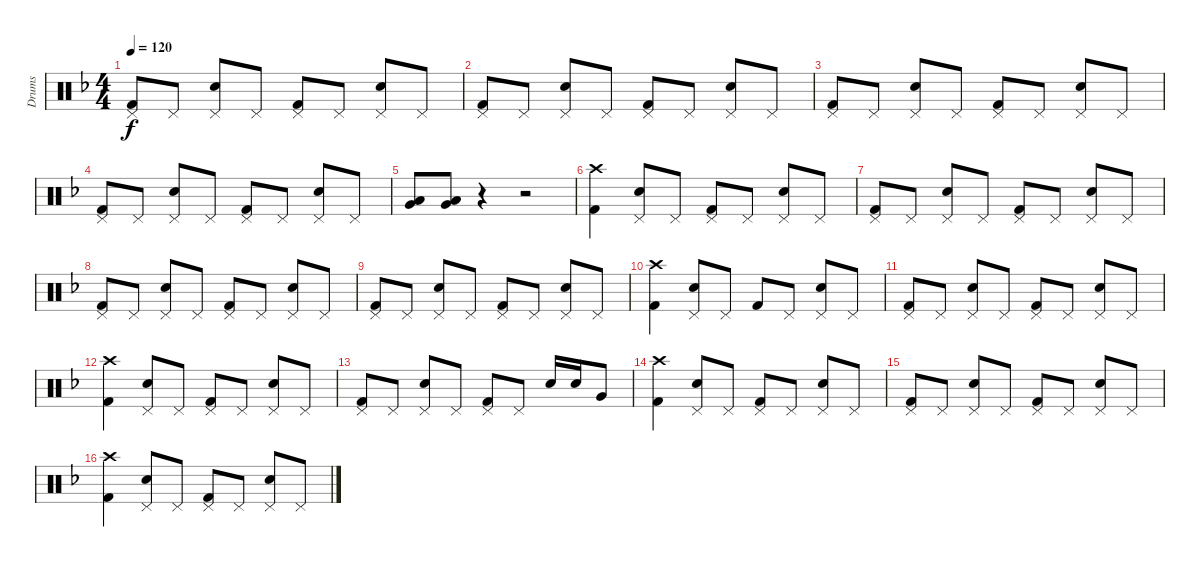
\track ("Drums" "Drums") {instrument percussion}
\staff {score}
\articulation defaults
\ts (4 4)
\tempo 120
\clef neutral
\ks f
("Pedal Hi-Hat (hit)" "Kick (hit) 2").8{dy f} "Pedal Hi-Hat (hit)".8 ("Pedal Hi-Hat (hit)" "Electric Snare (hit)").8 "Pedal Hi-Hat (hit)".8 ("Pedal Hi-Hat (hit)" "Kick (hit) 2").8 "Pedal Hi-Hat (hit)".8 ("Pedal Hi-Hat (hit)" "Electric Snare (hit)").8 "Pedal Hi-Hat (hit)".8 |
("Pedal Hi-Hat (hit)" "Kick (hit) 2").8 "Pedal Hi-Hat (hit)".8 ("Pedal Hi-Hat (hit)" "Electric Snare (hit)").8 "Pedal Hi-Hat (hit)".8 ("Pedal Hi-Hat (hit)" "Kick (hit) 2").8 "Pedal Hi-Hat (hit)".8 ("Pedal Hi-Hat (hit)" "Electric Snare (hit)").8 "Pedal Hi-Hat (hit)".8 |
("Pedal Hi-Hat (hit)" "Kick (hit) 2").8 "Pedal Hi-Hat (hit)".8 ("Pedal Hi-Hat (hit)" "Electric Snare (hit)").8 "Pedal Hi-Hat (hit)".8 ("Pedal Hi-Hat (hit)" "Kick (hit) 2").8 "Pedal Hi-Hat (hit)".8 ("Pedal Hi-Hat (hit)" "Electric Snare (hit)").8 "Pedal Hi-Hat (hit)".8 |
("Pedal Hi-Hat (hit)" "Kick (hit) 2").8 "Pedal Hi-Hat (hit)".8 ("Pedal Hi-Hat (hit)" "Electric Snare (hit)").8 "Pedal Hi-Hat (hit)".8 ("Pedal Hi-Hat (hit)" "Kick (hit) 2").8 "Pedal Hi-Hat (hit)".8 ("Pedal Hi-Hat (hit)" "Electric Snare (hit)").8 "Pedal Hi-Hat (hit)".8 |
("Very Low Tom (hit)" "Low Floor Tom (hit)").8 ("Very Low Tom (hit)" "Low Floor Tom (hit)").8 r.4 r.2 |
("Crash high (hit)" "Kick (hit) 2").4 ("Pedal Hi-Hat (hit)" "Electric Snare (hit)").8 "Pedal Hi-Hat (hit)".8 ("Pedal Hi-Hat (hit)" "Kick (hit) 2").8 "Pedal Hi-Hat (hit)".8 ("Pedal Hi-Hat (hit)" "Electric Snare (hit)").8 "Pedal Hi-Hat (hit)".8 |
("Pedal Hi-Hat (hit)" "Kick (hit) 2").8 "Pedal Hi-Hat (hit)".8 ("Pedal Hi-Hat (hit)" "Electric Snare (hit)").8 "Pedal Hi-Hat (hit)".8 ("Pedal Hi-Hat (hit)" "Kick (hit) 2").8 "Pedal Hi-Hat (hit)".8 ("Pedal Hi-Hat (hit)" "Electric Snare (hit)").8 "Pedal Hi-Hat (hit)".8 |
("Pedal Hi-Hat (hit)" "Kick (hit) 2").8 "Pedal Hi-Hat (hit)".8 ("Pedal Hi-Hat (hit)" "Electric Snare (hit)").8 "Pedal Hi-Hat (hit)".8 ("Pedal Hi-Hat (hit)" "Kick (hit) 2").8 "Pedal Hi-Hat (hit)".8 ("Pedal Hi-Hat (hit)" "Electric Snare (hit)").8 "Pedal Hi-Hat (hit)".8 |
("Pedal Hi-Hat (hit)" "Kick (hit) 2").8 "Pedal Hi-Hat (hit)".8 ("Pedal Hi-Hat (hit)" "Electric Snare (hit)").8 "Pedal Hi-Hat (hit)".8 ("Pedal Hi-Hat (hit)" "Kick (hit) 2").8 "Pedal Hi-Hat (hit)".8 ("Pedal Hi-Hat (hit)" "Electric Snare (hit)").8 "Pedal Hi-Hat (hit)".8 |
("Crash high (hit)" "Kick (hit) 2").4 ("Pedal Hi-Hat (hit)" "Electric Snare (hit)").8 "Pedal Hi-Hat (hit)".8 "Kick (hit) 2".8 "Pedal Hi-Hat (hit)".8 ("Pedal Hi-Hat (hit)" "Electric Snare (hit)").8 "Pedal Hi-Hat (hit)".8 |
("Pedal Hi-Hat (hit)" "Kick (hit) 2").8 "Pedal Hi-Hat (hit)".8 ("Pedal Hi-Hat (hit)" "Electric Snare (hit)").8 "Pedal Hi-Hat (hit)".8 ("Pedal Hi-Hat (hit)" "Kick (hit) 2").8 "Pedal Hi-Hat (hit)".8 ("Pedal Hi-Hat (hit)" "Electric Snare (hit)").8 "Pedal Hi-Hat (hit)".8 |
("Crash high (hit)" "Kick (hit) 2").4 ("Pedal Hi-Hat (hit)" "Electric Snare (hit)").8 "Pedal Hi-Hat (hit)".8 ("Pedal Hi-Hat (hit)" "Kick (hit) 2").8 "Pedal Hi-Hat (hit)".8 ("Pedal Hi-Hat (hit)" "Electric Snare (hit)").8 "Pedal Hi-Hat (hit)".8 |
("Pedal Hi-Hat (hit)" "Kick (hit) 2").8 "Pedal Hi-Hat (hit)".8 ("Pedal Hi-Hat (hit)" "Electric Snare (hit)").8 "Pedal Hi-Hat (hit)".8 ("Pedal Hi-Hat (hit)" "Kick (hit) 2").8 "Pedal Hi-Hat (hit)".8 "Electric Snare (hit)".16 "Electric Snare (hit)".16 "Very Low Tom (hit)".8 |
("Crash high (hit)" "Kick (hit) 2").4 ("Pedal Hi-Hat (hit)" "Electric Snare (hit)").8 "Pedal Hi-Hat (hit)".8 ("Pedal Hi-Hat (hit)" "Kick (hit) 2").8 "Pedal Hi-Hat (hit)".8 ("Pedal Hi-Hat (hit)" "Electric Snare (hit)").8 "Pedal Hi-Hat (hit)".8 |
("Pedal Hi-Hat (hit)" "Kick (hit) 2").8 "Pedal Hi-Hat (hit)".8 ("Pedal Hi-Hat (hit)" "Electric Snare (hit)").8 "Pedal Hi-Hat (hit)".8 ("Pedal Hi-Hat (hit)" "Kick (hit) 2").8 "Pedal Hi-Hat (hit)".8 ("Pedal Hi-Hat (hit)" "Electric Snare (hit)").8 "Pedal Hi-Hat (hit)".8 |
("Crash high (hit)" "Kick (hit) 2").4 ("Pedal Hi-Hat (hit)" "Electric Snare (hit)").8 "Pedal Hi-Hat (hit)".8 ("Pedal Hi-Hat (hit)" "Kick (hit) 2").8 "Pedal Hi-Hat (hit)".8 ("Pedal Hi-Hat (hit)" "Electric Snare (hit)").8 "Pedal Hi-Hat (hit)".8
